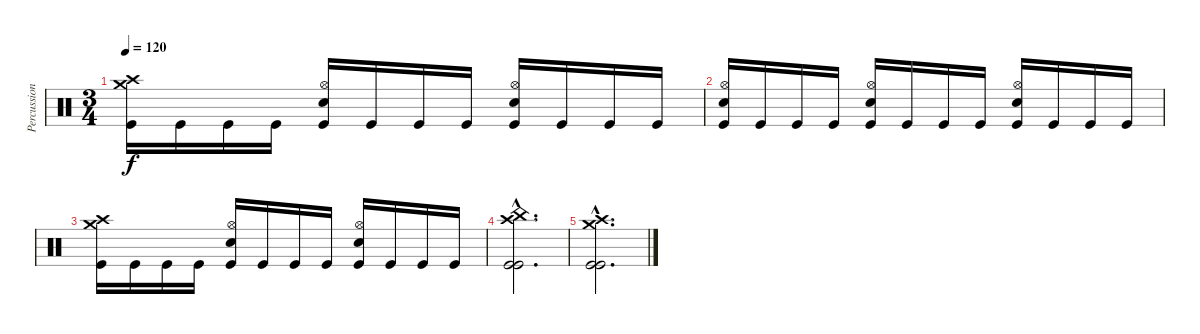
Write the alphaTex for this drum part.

\track ("Percussion" "Percussion") {instrument percussion}
\staff {score}
\articulation defaults
\ts (3 4)
\tempo 120
\clef neutral
\ks c
("Crash medium (hit)" "Crash high (hit)" "Kick (hit)").16{dy f} "Kick (hit)".16 "Kick (hit)".16 "Kick (hit)".16 ("Hi-Hat (open)" "Snare (hit) 2" "Kick (hit)").16 "Kick (hit)".16 "Kick (hit)".16 "Kick (hit)".16 ("Hi-Hat (open)" "Snare (hit) 2" "Kick (hit)").16 "Kick (hit)".16 "Kick (hit)".16 "Kick (hit)".16 |
("Hi-Hat (open)" "Snare (hit) 2" "Kick (hit)").16 "Kick (hit)".16 "Kick (hit)".16 "Kick (hit)".16 ("Hi-Hat (open)" "Snare (hit) 2" "Kick (hit)").16 "Kick (hit)".16 "Kick (hit)".16 "Kick (hit)".16 ("Hi-Hat (open)" "Snare (hit) 2" "Kick (hit)").16 "Kick (hit)".16 "Kick (hit)".16 "Kick (hit)".16 |
("Crash medium (hit)" "Crash high (hit)" "Kick (hit)").16 "Kick (hit)".16 "Kick (hit)".16 "Kick (hit)".16 ("Hi-Hat (open)" "Snare (hit) 2" "Kick (hit)").16 "Kick (hit)".16 "Kick (hit)".16 "Kick (hit)".16 ("Hi-Hat (open)" "Snare (hit) 2" "Kick (hit)").16 "Kick (hit)".16 "Kick (hit)".16 "Kick (hit)".16 |
("China (hit)"{hac} "Crash high (hit)"{hac} "Kick (hit)"{hac} "Kick (hit)"{hac}).2{d} |
("Crash medium (hit)"{hac} "Crash high (hit)"{hac} "Kick (hit)"{hac} "Kick (hit)"{hac}).2{d}
